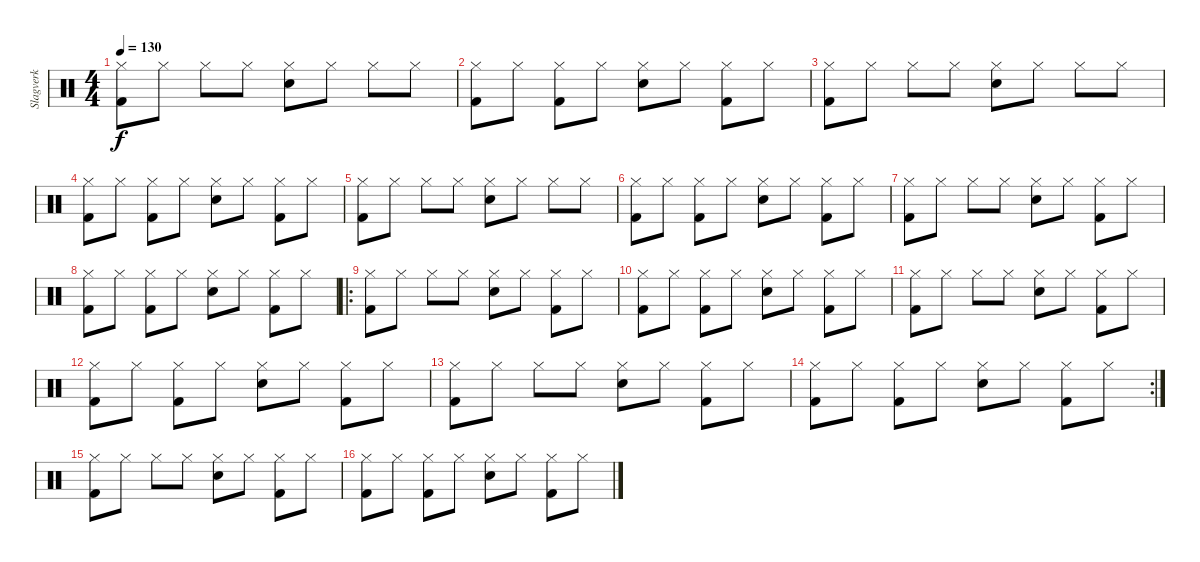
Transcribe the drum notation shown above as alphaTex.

\track ("Slagverk" "Slagverk") {instrument percussion}
\staff {score}
\articulation defaults
\ts (4 4)
\tempo 130
\clef neutral
\ks c
("Hi-Hat (closed)" "Kick (hit) 2").8{dy f} "Hi-Hat (closed)".8 "Hi-Hat (closed)".8 "Hi-Hat (closed)".8 ("Hi-Hat (closed)" "Electric Snare (hit)").8 "Hi-Hat (closed)".8 "Hi-Hat (closed)".8 "Hi-Hat (closed)".8 |
("Hi-Hat (closed)" "Kick (hit) 2").8 "Hi-Hat (closed)".8 ("Hi-Hat (closed)" "Kick (hit) 2").8 "Hi-Hat (closed)".8 ("Hi-Hat (closed)" "Electric Snare (hit)").8 "Hi-Hat (closed)".8 ("Hi-Hat (closed)" "Kick (hit) 2").8 "Hi-Hat (closed)".8 |
("Hi-Hat (closed)" "Kick (hit) 2").8 "Hi-Hat (closed)".8 "Hi-Hat (closed)".8 "Hi-Hat (closed)".8 ("Hi-Hat (closed)" "Electric Snare (hit)").8 "Hi-Hat (closed)".8 "Hi-Hat (closed)".8 "Hi-Hat (closed)".8 |
("Hi-Hat (closed)" "Kick (hit) 2").8 "Hi-Hat (closed)".8 ("Hi-Hat (closed)" "Kick (hit) 2").8 "Hi-Hat (closed)".8 ("Hi-Hat (closed)" "Electric Snare (hit)").8 "Hi-Hat (closed)".8 ("Hi-Hat (closed)" "Kick (hit) 2").8 "Hi-Hat (closed)".8 |
("Hi-Hat (closed)" "Kick (hit) 2").8 "Hi-Hat (closed)".8 "Hi-Hat (closed)".8 "Hi-Hat (closed)".8 ("Hi-Hat (closed)" "Electric Snare (hit)").8 "Hi-Hat (closed)".8 "Hi-Hat (closed)".8 "Hi-Hat (closed)".8 |
("Hi-Hat (closed)" "Kick (hit) 2").8 "Hi-Hat (closed)".8 ("Hi-Hat (closed)" "Kick (hit) 2").8 "Hi-Hat (closed)".8 ("Hi-Hat (closed)" "Electric Snare (hit)").8 "Hi-Hat (closed)".8 ("Hi-Hat (closed)" "Kick (hit) 2").8 "Hi-Hat (closed)".8 |
("Hi-Hat (closed)" "Kick (hit) 2").8 "Hi-Hat (closed)".8 "Hi-Hat (closed)".8 "Hi-Hat (closed)".8 ("Hi-Hat (closed)" "Electric Snare (hit)").8 "Hi-Hat (closed)".8 ("Hi-Hat (closed)" "Kick (hit) 2").8 "Hi-Hat (closed)".8 |
("Hi-Hat (closed)" "Kick (hit) 2").8 "Hi-Hat (closed)".8 ("Hi-Hat (closed)" "Kick (hit) 2").8 "Hi-Hat (closed)".8 ("Hi-Hat (closed)" "Electric Snare (hit)").8 "Hi-Hat (closed)".8 ("Hi-Hat (closed)" "Kick (hit) 2").8 "Hi-Hat (closed)".8 |
\ro
("Hi-Hat (closed)" "Kick (hit) 2").8 "Hi-Hat (closed)".8 "Hi-Hat (closed)".8 "Hi-Hat (closed)".8 ("Hi-Hat (closed)" "Electric Snare (hit)").8 "Hi-Hat (closed)".8 ("Hi-Hat (closed)" "Kick (hit) 2").8 "Hi-Hat (closed)".8 |
("Hi-Hat (closed)" "Kick (hit) 2").8 "Hi-Hat (closed)".8 ("Hi-Hat (closed)" "Kick (hit) 2").8 "Hi-Hat (closed)".8 ("Hi-Hat (closed)" "Electric Snare (hit)").8 "Hi-Hat (closed)".8 ("Hi-Hat (closed)" "Kick (hit) 2").8 "Hi-Hat (closed)".8 |
("Hi-Hat (closed)" "Kick (hit) 2").8 "Hi-Hat (closed)".8 "Hi-Hat (closed)".8 "Hi-Hat (closed)".8 ("Hi-Hat (closed)" "Electric Snare (hit)").8 "Hi-Hat (closed)".8 ("Hi-Hat (closed)" "Kick (hit) 2").8 "Hi-Hat (closed)".8 |
("Hi-Hat (closed)" "Kick (hit) 2").8 "Hi-Hat (closed)".8 ("Hi-Hat (closed)" "Kick (hit) 2").8 "Hi-Hat (closed)".8 ("Hi-Hat (closed)" "Electric Snare (hit)").8 "Hi-Hat (closed)".8 ("Hi-Hat (closed)" "Kick (hit) 2").8 "Hi-Hat (closed)".8 |
("Hi-Hat (closed)" "Kick (hit) 2").8 "Hi-Hat (closed)".8 "Hi-Hat (closed)".8 "Hi-Hat (closed)".8 ("Hi-Hat (closed)" "Electric Snare (hit)").8 "Hi-Hat (closed)".8 ("Hi-Hat (closed)" "Kick (hit) 2").8 "Hi-Hat (closed)".8 |
\rc 2
("Hi-Hat (closed)" "Kick (hit) 2").8 "Hi-Hat (closed)".8 ("Hi-Hat (closed)" "Kick (hit) 2").8 "Hi-Hat (closed)".8 ("Hi-Hat (closed)" "Electric Snare (hit)").8 "Hi-Hat (closed)".8 ("Hi-Hat (closed)" "Kick (hit) 2").8 "Hi-Hat (closed)".8 |
("Hi-Hat (closed)" "Kick (hit) 2").8 "Hi-Hat (closed)".8 "Hi-Hat (closed)".8 "Hi-Hat (closed)".8 ("Hi-Hat (closed)" "Electric Snare (hit)").8 "Hi-Hat (closed)".8 ("Hi-Hat (closed)" "Kick (hit) 2").8 "Hi-Hat (closed)".8 |
("Hi-Hat (closed)" "Kick (hit) 2").8 "Hi-Hat (closed)".8 ("Hi-Hat (closed)" "Kick (hit) 2").8 "Hi-Hat (closed)".8 ("Hi-Hat (closed)" "Electric Snare (hit)").8 "Hi-Hat (closed)".8 ("Hi-Hat (closed)" "Kick (hit) 2").8 "Hi-Hat (closed)".8
